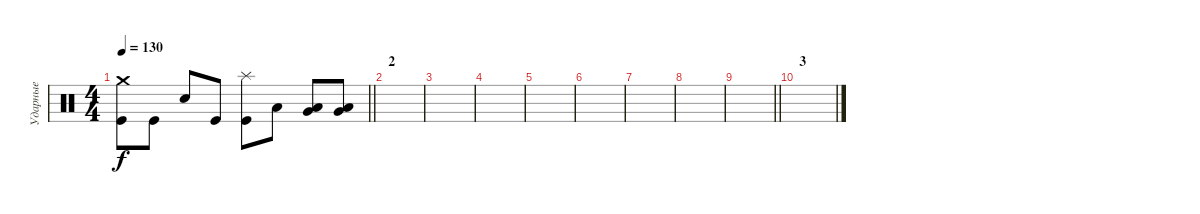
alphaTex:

\track ("Ударные" "Ударные") {instrument percussion}
\staff {score}
\articulation defaults
\ts (4 4)
\tempo 130
\clef neutral
\barLineRight lightlight
\ks c
("Crash medium (hit)" "Kick (hit)").8{dy f} "Kick (hit)".8 "Electric Snare (hit)".8 "Kick (hit)".8 ("Splash (hit)" "Kick (hit)").8 "Low Tom (hit)".8 ("Very Low Tom (hit)" "Low Floor Tom (hit)").8 ("Very Low Tom (hit)" "Low Floor Tom (hit)").8 |
\section ("" "2")
|
|
|
|
|
|
|
\barLineRight lightlight
|
\section ("" "3")
